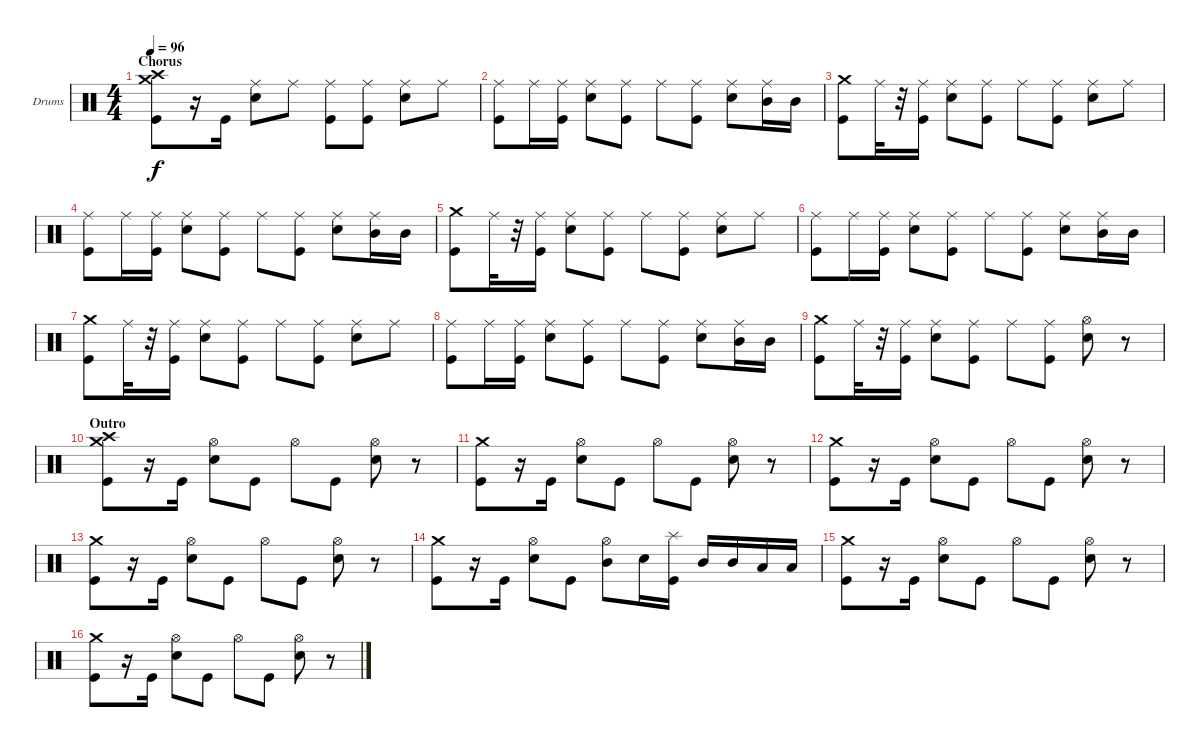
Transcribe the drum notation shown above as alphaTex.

\defaultSystemsLayout 4
\bracketExtendMode nobrackets
\firstSystemTrackNameOrientation horizontal
\otherSystemsTrackNameOrientation horizontal
\track ("Dave Abbruzzese" "Drums") {solo instrument percussion}
\staff {score}
\articulation defaults
\ts (4 4)
\section ("" "Chorus")
\tempo 96
\clef neutral
\ks c
("Crash high (hit)" "Crash medium (hit)" "Kick (hit)").8{dy f} r.16 "Kick (hit)".16 ("Ride (middle)" "Snare (hit) 2").8 "Ride (middle)".8 ("Ride (middle)" "Kick (hit)").8 ("Ride (middle)" "Kick (hit)").8 ("Ride (middle)" "Snare (hit) 2").8 "Ride (middle)".8 |
("Ride (middle)" "Kick (hit)").8 "Ride (middle)".16 ("Ride (middle)" "Kick (hit)").16 ("Ride (middle)" "Snare (hit) 2").8 ("Ride (middle)" "Kick (hit)").8 "Ride (middle)".8 ("Ride (middle)" "Kick (hit)").8 ("Ride (middle)" "Snare (hit) 2").8 ("Ride (middle)" "Mid Tom (hit)").16 "Mid Tom (hit)".16 |
("Crash medium (hit)" "Kick (hit)").8 "Ride (middle)".32 r.32 ("Ride (middle)" "Kick (hit)").16 ("Ride (middle)" "Snare (hit) 2").8 ("Ride (middle)" "Kick (hit)").8 "Ride (middle)".8 ("Ride (middle)" "Kick (hit)").8 ("Ride (middle)" "Snare (hit) 2").8 "Ride (middle)".8 |
("Ride (middle)" "Kick (hit)").8 "Ride (middle)".16 ("Ride (middle)" "Kick (hit)").16 ("Ride (middle)" "Snare (hit) 2").8 ("Ride (middle)" "Kick (hit)").8 "Ride (middle)".8 ("Ride (middle)" "Kick (hit)").8 ("Ride (middle)" "Snare (hit) 2").8 ("Ride (middle)" "Mid Tom (hit)").16 "Mid Tom (hit)".16 |
("Crash medium (hit)" "Kick (hit)").8 "Ride (middle)".32 r.32 ("Ride (middle)" "Kick (hit)").16 ("Ride (middle)" "Snare (hit) 2").8 ("Ride (middle)" "Kick (hit)").8 "Ride (middle)".8 ("Ride (middle)" "Kick (hit)").8 ("Ride (middle)" "Snare (hit) 2").8 "Ride (middle)".8 |
("Ride (middle)" "Kick (hit)").8 "Ride (middle)".16 ("Ride (middle)" "Kick (hit)").16 ("Ride (middle)" "Snare (hit) 2").8 ("Ride (middle)" "Kick (hit)").8 "Ride (middle)".8 ("Ride (middle)" "Kick (hit)").8 ("Ride (middle)" "Snare (hit) 2").8 ("Ride (middle)" "Mid Tom (hit)").16 "Mid Tom (hit)".16 |
("Crash medium (hit)" "Kick (hit)").8 "Ride (middle)".32 r.32 ("Ride (middle)" "Kick (hit)").16 ("Ride (middle)" "Snare (hit) 2").8 ("Ride (middle)" "Kick (hit)").8 "Ride (middle)".8 ("Ride (middle)" "Kick (hit)").8 ("Ride (middle)" "Snare (hit) 2").8 "Ride (middle)".8 |
("Ride (middle)" "Kick (hit)").8 "Ride (middle)".16 ("Ride (middle)" "Kick (hit)").16 ("Ride (middle)" "Snare (hit) 2").8 ("Ride (middle)" "Kick (hit)").8 "Ride (middle)".8 ("Ride (middle)" "Kick (hit)").8 ("Ride (middle)" "Snare (hit) 2").8 ("Ride (middle)" "Mid Tom (hit)").16 "Mid Tom (hit)".16 |
("Crash medium (hit)" "Kick (hit)").8 "Ride (middle)".32 r.32 ("Ride (middle)" "Kick (hit)").16 ("Ride (middle)" "Snare (hit) 2").8 ("Ride (middle)" "Kick (hit)").8 "Ride (middle)".8 ("Ride (middle)" "Kick (hit)").8 ("Hi-Hat (open)" "Snare (hit) 2").8 r.8 |
\section ("" "Outro")
("Crash high (hit)" "Crash medium (hit)" "Kick (hit)").8 r.16 "Kick (hit)".16 ("Hi-Hat (open)" "Snare (hit) 2").8 "Kick (hit)".8 "Hi-Hat (open)".8 "Kick (hit)".8 ("Hi-Hat (open)" "Snare (hit) 2").8 r.8 |
("Crash medium (hit)" "Kick (hit)").8 r.16 "Kick (hit)".16 ("Hi-Hat (open)" "Snare (hit) 2").8 "Kick (hit)".8 "Hi-Hat (open)".8 "Kick (hit)".8 ("Hi-Hat (open)" "Snare (hit) 2").8 r.8 |
("Crash medium (hit)" "Kick (hit)").8 r.16 "Kick (hit)".16 ("Hi-Hat (open)" "Snare (hit) 2").8 "Kick (hit)".8 "Hi-Hat (open)".8 "Kick (hit)".8 ("Hi-Hat (open)" "Snare (hit) 2").8 r.8 |
("Crash medium (hit)" "Kick (hit)").8 r.16 "Kick (hit)".16 ("Hi-Hat (open)" "Snare (hit) 2").8 "Kick (hit)".8 "Hi-Hat (open)".8 "Kick (hit)".8 ("Hi-Hat (open)" "Snare (hit) 2").8 r.8 |
("Crash medium (hit)" "Kick (hit)").8 r.16 "Kick (hit)".16 ("Hi-Hat (open)" "Snare (hit) 2").8 "Kick (hit)".8 ("Hi-Hat (open)" "Mid Tom (hit)").8 "Snare (hit) 2".16 ("Splash (hit)" "Kick (hit)").16 "Mid Tom (hit)".16 "Mid Tom (hit)".16 "Low Tom (hit)".16 "Low Tom (hit)".16 |
("Crash medium (hit)" "Kick (hit)").8 r.16 "Kick (hit)".16 ("Hi-Hat (open)" "Snare (hit) 2").8 "Kick (hit)".8 "Hi-Hat (open)".8 "Kick (hit)".8 ("Hi-Hat (open)" "Snare (hit) 2").8 r.8 |
("Crash medium (hit)" "Kick (hit)").8 r.16 "Kick (hit)".16 ("Hi-Hat (open)" "Snare (hit) 2").8 "Kick (hit)".8 "Hi-Hat (open)".8 "Kick (hit)".8 ("Hi-Hat (open)" "Snare (hit) 2").8 r.8
